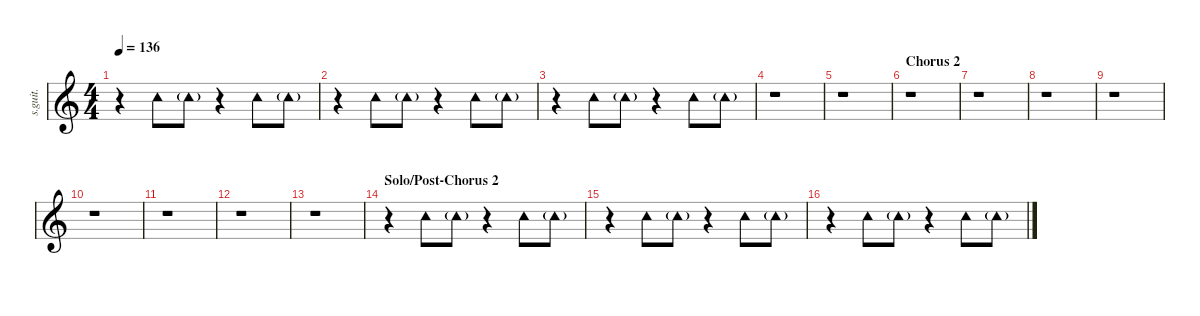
\defaultSystemsLayout 4
\hideDynamics
\bracketExtendMode nobrackets
\track ("Tambourine" "s.guit.") {instrument percussion}
\staff {score}
\articulation defaults
\ts (4 4)
\tempo 136
\clef g2
\ks c
r.4{dy mf} "Tambourine (hit)".8{lyrics (0 "") lyrics (1 "") lyrics (2 "") lyrics (3 "") lyrics (4 "")} "Tambourine (hit)"{g}.8{lyrics (0 "") lyrics (1 "") lyrics (2 "") lyrics (3 "") lyrics (4 "")} r.4 "Tambourine (hit)".8{lyrics (0 "") lyrics (1 "") lyrics (2 "") lyrics (3 "") lyrics (4 "")} "Tambourine (hit)"{g}.8{lyrics (0 "") lyrics (1 "") lyrics (2 "") lyrics (3 "") lyrics (4 "")} |
r.4 "Tambourine (hit)".8{lyrics (0 "") lyrics (1 "") lyrics (2 "") lyrics (3 "") lyrics (4 "")} "Tambourine (hit)"{g}.8{lyrics (0 "") lyrics (1 "") lyrics (2 "") lyrics (3 "") lyrics (4 "")} r.4 "Tambourine (hit)".8{lyrics (0 "") lyrics (1 "") lyrics (2 "") lyrics (3 "") lyrics (4 "")} "Tambourine (hit)"{g}.8{lyrics (0 "") lyrics (1 "") lyrics (2 "") lyrics (3 "") lyrics (4 "")} |
r.4 "Tambourine (hit)".8{lyrics (0 "") lyrics (1 "") lyrics (2 "") lyrics (3 "") lyrics (4 "")} "Tambourine (hit)"{g}.8{lyrics (0 "") lyrics (1 "") lyrics (2 "") lyrics (3 "") lyrics (4 "")} r.4 "Tambourine (hit)".8{lyrics (0 "") lyrics (1 "") lyrics (2 "") lyrics (3 "") lyrics (4 "")} "Tambourine (hit)"{g}.8{lyrics (0 "") lyrics (1 "") lyrics (2 "") lyrics (3 "") lyrics (4 "")} |
r.1 |
r.1 |
\section ("" "Chorus 2")
r.1 |
r.1 |
r.1 |
r.1 |
r.1 |
r.1 |
r.1 |
r.1 |
\section ("" "Solo/Post-Chorus 2")
r.4 "Tambourine (hit)".8{lyrics (0 "") lyrics (1 "") lyrics (2 "") lyrics (3 "") lyrics (4 "")} "Tambourine (hit)"{g}.8{lyrics (0 "") lyrics (1 "") lyrics (2 "") lyrics (3 "") lyrics (4 "")} r.4 "Tambourine (hit)".8{lyrics (0 "") lyrics (1 "") lyrics (2 "") lyrics (3 "") lyrics (4 "")} "Tambourine (hit)"{g}.8{lyrics (0 "") lyrics (1 "") lyrics (2 "") lyrics (3 "") lyrics (4 "")} |
r.4 "Tambourine (hit)".8{lyrics (0 "") lyrics (1 "") lyrics (2 "") lyrics (3 "") lyrics (4 "")} "Tambourine (hit)"{g}.8{lyrics (0 "") lyrics (1 "") lyrics (2 "") lyrics (3 "") lyrics (4 "")} r.4 "Tambourine (hit)".8{lyrics (0 "") lyrics (1 "") lyrics (2 "") lyrics (3 "") lyrics (4 "")} "Tambourine (hit)"{g}.8{lyrics (0 "") lyrics (1 "") lyrics (2 "") lyrics (3 "") lyrics (4 "")} |
r.4 "Tambourine (hit)".8{lyrics (0 "") lyrics (1 "") lyrics (2 "") lyrics (3 "") lyrics (4 "")} "Tambourine (hit)"{g}.8{lyrics (0 "") lyrics (1 "") lyrics (2 "") lyrics (3 "") lyrics (4 "")} r.4 "Tambourine (hit)".8{lyrics (0 "") lyrics (1 "") lyrics (2 "") lyrics (3 "") lyrics (4 "")} "Tambourine (hit)"{g}.8{lyrics (0 "") lyrics (1 "") lyrics (2 "") lyrics (3 "") lyrics (4 "")}
